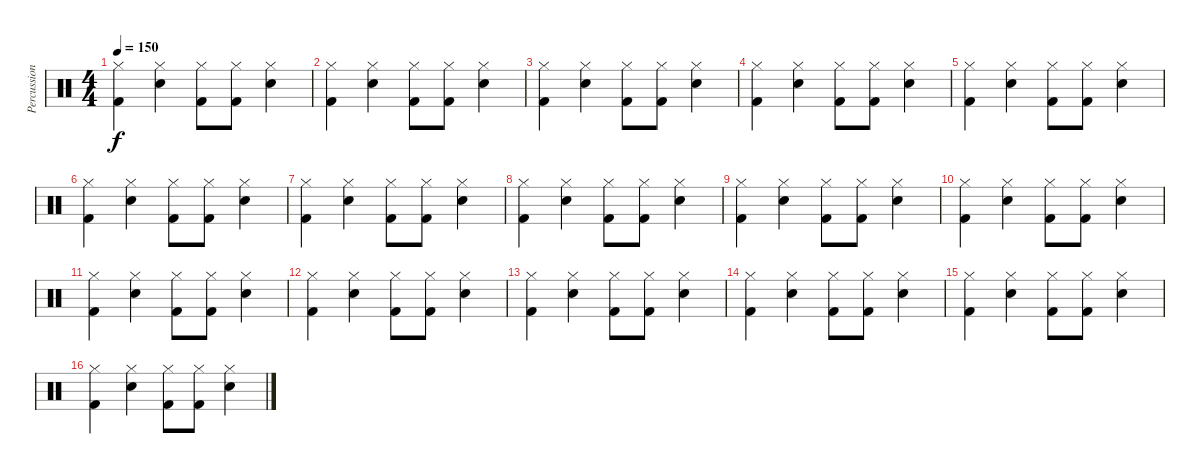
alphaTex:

\track ("Percussion" "Percussion") {instrument percussion}
\staff {score}
\articulation defaults
\ts (4 4)
\tempo 150
\clef neutral
\ks c
("Hi-Hat (closed)" "Kick (hit) 2").4{dy f} ("Hi-Hat (closed)" "Electric Snare (hit)").4 ("Hi-Hat (closed)" "Kick (hit) 2").8 ("Hi-Hat (closed)" "Kick (hit) 2").8 ("Hi-Hat (closed)" "Electric Snare (hit)").4 |
("Hi-Hat (closed)" "Kick (hit) 2").4 ("Hi-Hat (closed)" "Electric Snare (hit)").4 ("Hi-Hat (closed)" "Kick (hit) 2").8 ("Hi-Hat (closed)" "Kick (hit) 2").8 ("Hi-Hat (closed)" "Electric Snare (hit)").4 |
("Hi-Hat (closed)" "Kick (hit) 2").4 ("Hi-Hat (closed)" "Electric Snare (hit)").4 ("Hi-Hat (closed)" "Kick (hit) 2").8 ("Hi-Hat (closed)" "Kick (hit) 2").8 ("Hi-Hat (closed)" "Electric Snare (hit)").4 |
("Hi-Hat (closed)" "Kick (hit) 2").4 ("Hi-Hat (closed)" "Electric Snare (hit)").4 ("Hi-Hat (closed)" "Kick (hit) 2").8 ("Hi-Hat (closed)" "Kick (hit) 2").8 ("Hi-Hat (closed)" "Electric Snare (hit)").4 |
("Hi-Hat (closed)" "Kick (hit) 2").4 ("Hi-Hat (closed)" "Electric Snare (hit)").4 ("Hi-Hat (closed)" "Kick (hit) 2").8 ("Hi-Hat (closed)" "Kick (hit) 2").8 ("Hi-Hat (closed)" "Electric Snare (hit)").4 |
("Hi-Hat (closed)" "Kick (hit) 2").4 ("Hi-Hat (closed)" "Electric Snare (hit)").4 ("Hi-Hat (closed)" "Kick (hit) 2").8 ("Hi-Hat (closed)" "Kick (hit) 2").8 ("Hi-Hat (closed)" "Electric Snare (hit)").4 |
("Hi-Hat (closed)" "Kick (hit) 2").4 ("Hi-Hat (closed)" "Electric Snare (hit)").4 ("Hi-Hat (closed)" "Kick (hit) 2").8 ("Hi-Hat (closed)" "Kick (hit) 2").8 ("Hi-Hat (closed)" "Electric Snare (hit)").4 |
("Hi-Hat (closed)" "Kick (hit) 2").4 ("Hi-Hat (closed)" "Electric Snare (hit)").4 ("Hi-Hat (closed)" "Kick (hit) 2").8 ("Hi-Hat (closed)" "Kick (hit) 2").8 ("Hi-Hat (closed)" "Electric Snare (hit)").4 |
("Hi-Hat (closed)" "Kick (hit) 2").4 ("Hi-Hat (closed)" "Electric Snare (hit)").4 ("Hi-Hat (closed)" "Kick (hit) 2").8 ("Hi-Hat (closed)" "Kick (hit) 2").8 ("Hi-Hat (closed)" "Electric Snare (hit)").4 |
("Hi-Hat (closed)" "Kick (hit) 2").4 ("Hi-Hat (closed)" "Electric Snare (hit)").4 ("Hi-Hat (closed)" "Kick (hit) 2").8 ("Hi-Hat (closed)" "Kick (hit) 2").8 ("Hi-Hat (closed)" "Electric Snare (hit)").4 |
("Hi-Hat (closed)" "Kick (hit) 2").4 ("Hi-Hat (closed)" "Electric Snare (hit)").4 ("Hi-Hat (closed)" "Kick (hit) 2").8 ("Hi-Hat (closed)" "Kick (hit) 2").8 ("Hi-Hat (closed)" "Electric Snare (hit)").4 |
("Hi-Hat (closed)" "Kick (hit) 2").4 ("Hi-Hat (closed)" "Electric Snare (hit)").4 ("Hi-Hat (closed)" "Kick (hit) 2").8 ("Hi-Hat (closed)" "Kick (hit) 2").8 ("Hi-Hat (closed)" "Electric Snare (hit)").4 |
("Hi-Hat (closed)" "Kick (hit) 2").4 ("Hi-Hat (closed)" "Electric Snare (hit)").4 ("Hi-Hat (closed)" "Kick (hit) 2").8 ("Hi-Hat (closed)" "Kick (hit) 2").8 ("Hi-Hat (closed)" "Electric Snare (hit)").4 |
("Hi-Hat (closed)" "Kick (hit) 2").4 ("Hi-Hat (closed)" "Electric Snare (hit)").4 ("Hi-Hat (closed)" "Kick (hit) 2").8 ("Hi-Hat (closed)" "Kick (hit) 2").8 ("Hi-Hat (closed)" "Electric Snare (hit)").4 |
("Hi-Hat (closed)" "Kick (hit) 2").4 ("Hi-Hat (closed)" "Electric Snare (hit)").4 ("Hi-Hat (closed)" "Kick (hit) 2").8 ("Hi-Hat (closed)" "Kick (hit) 2").8 ("Hi-Hat (closed)" "Electric Snare (hit)").4 |
("Hi-Hat (closed)" "Kick (hit) 2").4 ("Hi-Hat (closed)" "Electric Snare (hit)").4 ("Hi-Hat (closed)" "Kick (hit) 2").8 ("Hi-Hat (closed)" "Kick (hit) 2").8 ("Hi-Hat (closed)" "Electric Snare (hit)").4
